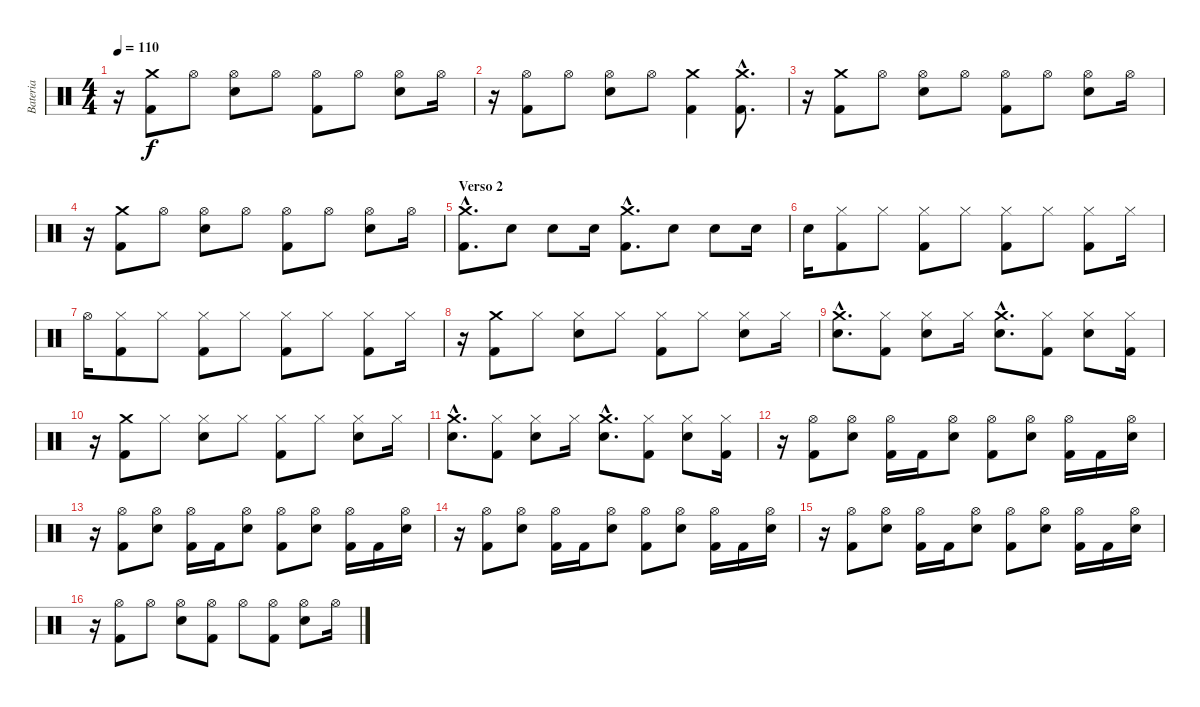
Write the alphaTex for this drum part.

\track ("Bateria" "Bateria") {instrument percussion}
\staff {score}
\articulation defaults
\ts (4 4)
\tempo 110
\clef neutral
\ks c
r.16{dy f} ("Crash medium (hit)" "Kick (hit) 2").8 "Hi-Hat (open)".8 ("Hi-Hat (open)" "Snare (hit) 2").8 "Hi-Hat (open)".8 ("Hi-Hat (open)" "Kick (hit) 2").8 "Hi-Hat (open)".8 ("Hi-Hat (open)" "Snare (hit) 2").8 "Hi-Hat (open)".16 |
r.16 ("Hi-Hat (open)" "Kick (hit) 2").8 "Hi-Hat (open)".8 ("Hi-Hat (open)" "Snare (hit) 2").8 "Hi-Hat (open)".8 ("Crash medium (hit)" "Kick (hit) 2").4 ("Crash medium (hit)"{hac} "Kick (hit) 2"{hac}).8{d} |
r.16 ("Crash medium (hit)" "Kick (hit) 2").8 "Hi-Hat (open)".8 ("Hi-Hat (open)" "Snare (hit) 2").8 "Hi-Hat (open)".8 ("Hi-Hat (open)" "Kick (hit) 2").8 "Hi-Hat (open)".8 ("Hi-Hat (open)" "Snare (hit) 2").8 "Hi-Hat (open)".16 |
r.16 ("Crash medium (hit)" "Kick (hit) 2").8 "Hi-Hat (open)".8 ("Hi-Hat (open)" "Snare (hit) 2").8 "Hi-Hat (open)".8 ("Hi-Hat (open)" "Kick (hit) 2").8 "Hi-Hat (open)".8 ("Hi-Hat (open)" "Snare (hit) 2").8 "Hi-Hat (open)".16 |
\section ("" "Verso 2")
("Kick (hit) 2"{hac} "Crash medium (hit)"{hac}).8{d} "Snare (hit) 2".8 "Snare (hit) 2".8 "Snare (hit) 2".16 ("Kick (hit) 2"{hac} "Crash medium (hit)"{hac}).8{d} "Snare (hit) 2".8 "Snare (hit) 2".8 "Snare (hit) 2".16 |
"Snare (hit) 2".16 ("Hi-Hat (closed)" "Kick (hit) 2").8 "Hi-Hat (closed)".8 ("Hi-Hat (closed)" "Kick (hit) 2").8 "Hi-Hat (closed)".8 ("Hi-Hat (closed)" "Kick (hit) 2").8 "Hi-Hat (closed)".8 ("Hi-Hat (closed)" "Kick (hit) 2").8 "Hi-Hat (closed)".16 |
"Hi-Hat (open)".16 ("Hi-Hat (closed)" "Kick (hit) 2").8 "Hi-Hat (closed)".8 ("Hi-Hat (closed)" "Kick (hit) 2").8 "Hi-Hat (closed)".8 ("Hi-Hat (closed)" "Kick (hit) 2").8 "Hi-Hat (closed)".8 ("Hi-Hat (closed)" "Kick (hit) 2").8 "Hi-Hat (closed)".16 |
r.16 ("Crash medium (hit)" "Kick (hit) 2").8 "Hi-Hat (closed)".8 ("Hi-Hat (closed)" "Snare (hit) 2").8 "Hi-Hat (closed)".8 ("Hi-Hat (closed)" "Kick (hit) 2").8 "Hi-Hat (closed)".8 ("Hi-Hat (closed)" "Snare (hit) 2").8 "Hi-Hat (closed)".16 |
("Crash medium (hit)"{hac} "Snare (hit) 2"{hac}).8{d} ("Hi-Hat (closed)" "Kick (hit) 2").8 ("Hi-Hat (closed)" "Snare (hit) 2").8 "Hi-Hat (closed)".16 ("Crash medium (hit)"{hac} "Snare (hit) 2"{hac}).8{d} ("Hi-Hat (closed)" "Kick (hit) 2").8 ("Hi-Hat (closed)" "Snare (hit) 2").8 ("Hi-Hat (closed)" "Kick (hit) 2").16 |
r.16 ("Crash medium (hit)" "Kick (hit) 2").8 "Hi-Hat (closed)".8 ("Hi-Hat (closed)" "Snare (hit) 2").8 "Hi-Hat (closed)".8 ("Hi-Hat (closed)" "Kick (hit) 2").8 "Hi-Hat (closed)".8 ("Hi-Hat (closed)" "Snare (hit) 2").8 "Hi-Hat (closed)".16 |
("Crash medium (hit)"{hac} "Snare (hit) 2"{hac}).8{d} ("Hi-Hat (closed)" "Kick (hit) 2").8 ("Hi-Hat (closed)" "Snare (hit) 2").8 "Hi-Hat (closed)".16 ("Crash medium (hit)"{hac} "Snare (hit) 2"{hac}).8{d} ("Hi-Hat (closed)" "Kick (hit) 2").8 ("Hi-Hat (closed)" "Snare (hit) 2").8 ("Hi-Hat (closed)" "Kick (hit) 2").16 |
r.16 ("Hi-Hat (open)" "Kick (hit) 2").8 ("Hi-Hat (open)" "Snare (hit) 2").8 ("Hi-Hat (open)" "Kick (hit) 2").16 "Kick (hit) 2".16 ("Hi-Hat (open)" "Snare (hit) 2").8 ("Hi-Hat (open)" "Kick (hit) 2").8 ("Hi-Hat (open)" "Snare (hit) 2").8 ("Hi-Hat (open)" "Kick (hit) 2").16 "Kick (hit) 2".16 ("Hi-Hat (open)" "Snare (hit) 2").16 |
r.16 ("Hi-Hat (open)" "Kick (hit) 2").8 ("Hi-Hat (open)" "Snare (hit) 2").8 ("Hi-Hat (open)" "Kick (hit) 2").16 "Kick (hit) 2".16 ("Hi-Hat (open)" "Snare (hit) 2").8 ("Hi-Hat (open)" "Kick (hit) 2").8 ("Hi-Hat (open)" "Snare (hit) 2").8 ("Hi-Hat (open)" "Kick (hit) 2").16 "Kick (hit) 2".16 ("Hi-Hat (open)" "Snare (hit) 2").16 |
r.16 ("Hi-Hat (open)" "Kick (hit) 2").8 ("Hi-Hat (open)" "Snare (hit) 2").8 ("Hi-Hat (open)" "Kick (hit) 2").16 "Kick (hit) 2".16 ("Hi-Hat (open)" "Snare (hit) 2").8 ("Hi-Hat (open)" "Kick (hit) 2").8 ("Hi-Hat (open)" "Snare (hit) 2").8 ("Hi-Hat (open)" "Kick (hit) 2").16 "Kick (hit) 2".16 ("Hi-Hat (open)" "Snare (hit) 2").16 |
r.16 ("Hi-Hat (open)" "Kick (hit) 2").8 ("Hi-Hat (open)" "Snare (hit) 2").8 ("Hi-Hat (open)" "Kick (hit) 2").16 "Kick (hit) 2".16 ("Hi-Hat (open)" "Snare (hit) 2").8 ("Hi-Hat (open)" "Kick (hit) 2").8 ("Hi-Hat (open)" "Snare (hit) 2").8 ("Hi-Hat (open)" "Kick (hit) 2").16 "Kick (hit) 2".16 ("Hi-Hat (open)" "Snare (hit) 2").16 |
r.16 ("Hi-Hat (open)" "Kick (hit) 2").8 "Hi-Hat (open)".8 ("Hi-Hat (open)" "Snare (hit) 2").8 ("Hi-Hat (open)" "Kick (hit) 2").8 "Hi-Hat (open)".8 ("Hi-Hat (open)" "Kick (hit) 2").8 ("Hi-Hat (open)" "Snare (hit) 2").8 "Hi-Hat (open)".16
